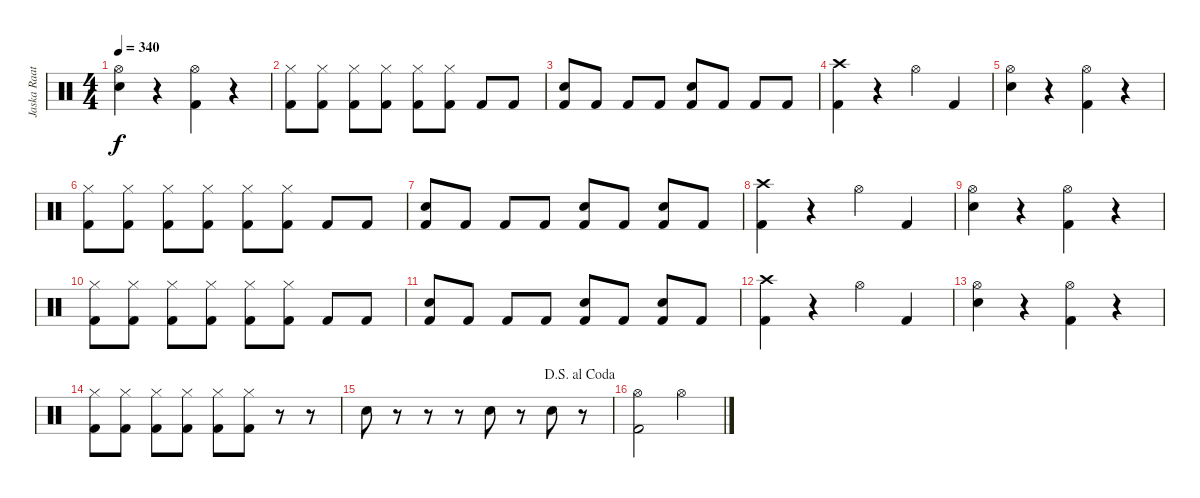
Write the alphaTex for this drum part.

\track ("Jaska Raatkinen" "Jaska Raat") {instrument percussion}
\staff {score}
\articulation defaults
\ts (4 4)
\tempo 340
\clef neutral
\ks c
("Hi-Hat (open)" "Snare (hit) 2").4{dy f} r.4 ("Hi-Hat (open)" "Kick (hit) 2").4 r.4 |
("Hi-Hat (closed)" "Kick (hit) 2").8 ("Hi-Hat (closed)" "Kick (hit) 2").8 ("Hi-Hat (closed)" "Kick (hit) 2").8 ("Hi-Hat (closed)" "Kick (hit) 2").8 ("Hi-Hat (closed)" "Kick (hit) 2").8 ("Hi-Hat (closed)" "Kick (hit) 2").8 "Kick (hit) 2".8 "Kick (hit) 2".8 |
("Snare (hit) 2" "Kick (hit) 2").8 "Kick (hit) 2".8 "Kick (hit) 2".8 "Kick (hit) 2".8 ("Snare (hit) 2" "Kick (hit) 2").8 "Kick (hit) 2".8 "Kick (hit) 2".8 "Kick (hit) 2".8 |
("Crash high (hit)" "Kick (hit) 2").4 r.4 "Hi-Hat (open)".4 "Kick (hit) 2".4 |
("Hi-Hat (open)" "Snare (hit) 2").4 r.4 ("Hi-Hat (open)" "Kick (hit) 2").4 r.4 |
("Hi-Hat (closed)" "Kick (hit) 2").8 ("Hi-Hat (closed)" "Kick (hit) 2").8 ("Hi-Hat (closed)" "Kick (hit) 2").8 ("Hi-Hat (closed)" "Kick (hit) 2").8 ("Hi-Hat (closed)" "Kick (hit) 2").8 ("Hi-Hat (closed)" "Kick (hit) 2").8 "Kick (hit) 2".8 "Kick (hit) 2".8 |
("Snare (hit) 2" "Kick (hit) 2").8 "Kick (hit) 2".8 "Kick (hit) 2".8 "Kick (hit) 2".8 ("Snare (hit) 2" "Kick (hit) 2").8 "Kick (hit) 2".8 ("Snare (hit) 2" "Kick (hit) 2").8 "Kick (hit) 2".8 |
("Crash high (hit)" "Kick (hit) 2").4 r.4 "Hi-Hat (open)".4 "Kick (hit) 2".4 |
("Hi-Hat (open)" "Snare (hit) 2").4 r.4 ("Hi-Hat (open)" "Kick (hit) 2").4 r.4 |
("Hi-Hat (closed)" "Kick (hit) 2").8 ("Hi-Hat (closed)" "Kick (hit) 2").8 ("Hi-Hat (closed)" "Kick (hit) 2").8 ("Hi-Hat (closed)" "Kick (hit) 2").8 ("Hi-Hat (closed)" "Kick (hit) 2").8 ("Hi-Hat (closed)" "Kick (hit) 2").8 "Kick (hit) 2".8 "Kick (hit) 2".8 |
("Snare (hit) 2" "Kick (hit) 2").8 "Kick (hit) 2".8 "Kick (hit) 2".8 "Kick (hit) 2".8 ("Snare (hit) 2" "Kick (hit) 2").8 "Kick (hit) 2".8 ("Snare (hit) 2" "Kick (hit) 2").8 "Kick (hit) 2".8 |
("Crash high (hit)" "Kick (hit) 2").4 r.4 "Hi-Hat (open)".4 "Kick (hit) 2".4 |
("Hi-Hat (open)" "Snare (hit) 2").4 r.4 ("Hi-Hat (open)" "Kick (hit) 2").4 r.4 |
("Hi-Hat (closed)" "Kick (hit) 2").8 ("Hi-Hat (closed)" "Kick (hit) 2").8 ("Hi-Hat (closed)" "Kick (hit) 2").8 ("Hi-Hat (closed)" "Kick (hit) 2").8 ("Hi-Hat (closed)" "Kick (hit) 2").8 ("Hi-Hat (closed)" "Kick (hit) 2").8 r.8 r.8 |
\jump dalsegnoalcoda "Snare (hit) 2".8
r.8 r.8 r.8 "Snare (hit) 2".8 r.8 "Snare (hit) 2".8 r.8 |
("Hi-Hat (open)" "Kick (hit) 2").2 "Hi-Hat (open)".2
